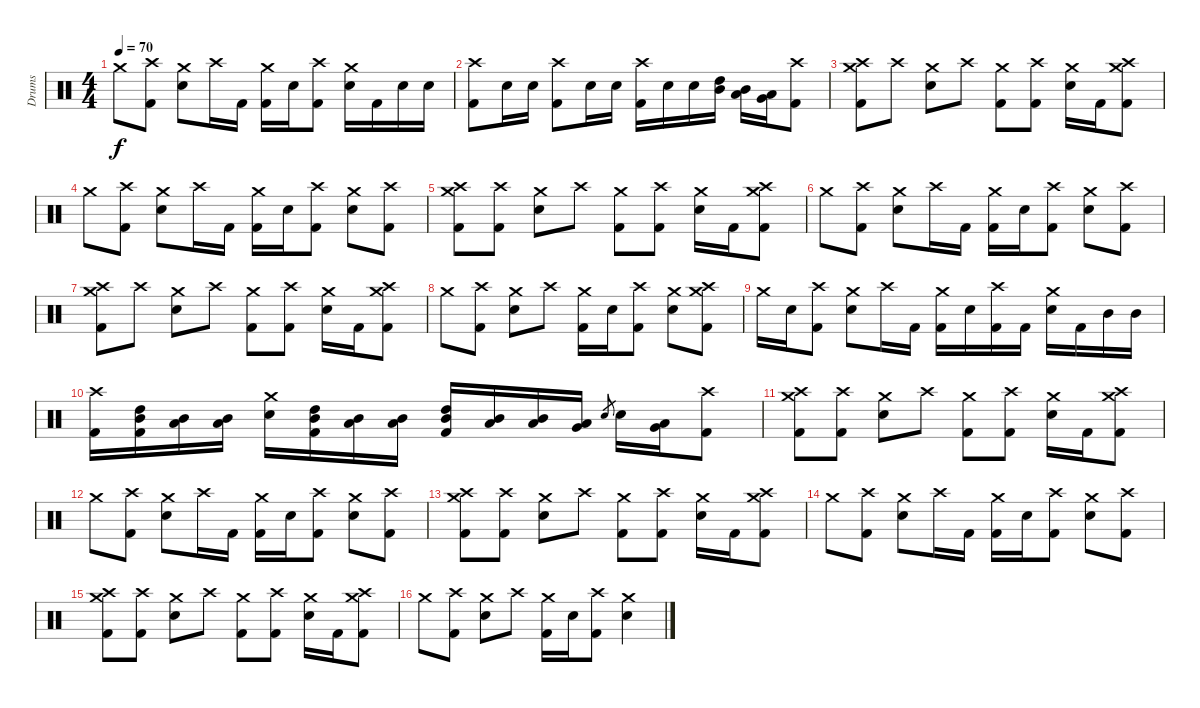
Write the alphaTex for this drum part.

\track ("Drums" "Drums") {instrument percussion}
\staff {score}
\articulation defaults
\ts (4 4)
\tempo 70
\clef neutral
\ks c "Crash medium (hit)".8{dy f}
("Crash high (hit)" "Kick (hit) 2").8 ("Crash medium (hit)" "Snare (hit) 2").8 "Crash high (hit)".16 "Kick (hit) 2".16 ("Crash medium (hit)" "Kick (hit) 2").16 "Snare (hit) 2".16 ("Crash high (hit)" "Kick (hit) 2").8 ("Crash medium (hit)" "Snare (hit) 2").16 "Kick (hit) 2".16 "Snare (hit) 2".16 "Snare (hit) 2".16 |
("Crash high (hit)" "Kick (hit) 2").8 "Snare (hit) 2".16 "Snare (hit) 2".16 ("Crash high (hit)" "Kick (hit) 2").8 "Snare (hit) 2".16 "Snare (hit) 2".16 ("Crash high (hit)" "Kick (hit) 2").16 "Snare (hit) 2".16 "Snare (hit) 2".16 ("High Tom (hit)" "Mid Tom (hit)").16 ("Mid Tom (hit)" "Low Tom (hit)").16 ("Low Tom (hit)" "Very Low Tom (hit)").16 ("Crash high (hit)" "Kick (hit) 2").8 |
("Crash high (hit)" "Crash medium (hit)" "Kick (hit) 2").8 "Crash high (hit)".8 ("Crash medium (hit)" "Snare (hit) 2").8 "Crash high (hit)".8 ("Crash medium (hit)" "Kick (hit) 2").8 ("Crash high (hit)" "Kick (hit) 2").8 ("Crash medium (hit)" "Snare (hit) 2").16 "Kick (hit) 2".16 ("Crash high (hit)" "Crash medium (hit)" "Kick (hit) 2").8 |
"Crash medium (hit)".8 ("Crash high (hit)" "Kick (hit) 2").8 ("Crash medium (hit)" "Snare (hit) 2").8 "Crash high (hit)".16 "Kick (hit) 2".16 ("Crash medium (hit)" "Kick (hit) 2").16 "Snare (hit) 2".16 ("Crash high (hit)" "Kick (hit) 2").8 ("Crash medium (hit)" "Snare (hit) 2").8 ("Crash high (hit)" "Kick (hit) 2").8 |
("Crash high (hit)" "Crash medium (hit)" "Kick (hit) 2").8 ("Crash high (hit)" "Kick (hit) 2").8 ("Crash medium (hit)" "Snare (hit) 2").8 "Crash high (hit)".8 ("Crash medium (hit)" "Kick (hit) 2").8 ("Crash high (hit)" "Kick (hit) 2").8 ("Crash medium (hit)" "Snare (hit) 2").16 "Kick (hit) 2".16 ("Crash high (hit)" "Crash medium (hit)" "Kick (hit) 2").8 |
"Crash medium (hit)".8 ("Crash high (hit)" "Kick (hit) 2").8 ("Crash medium (hit)" "Snare (hit) 2").8 "Crash high (hit)".16 "Kick (hit) 2".16 ("Crash medium (hit)" "Kick (hit) 2").16 "Snare (hit) 2".16 ("Crash high (hit)" "Kick (hit) 2").8 ("Crash medium (hit)" "Snare (hit) 2").8 ("Crash high (hit)" "Kick (hit) 2").8 |
("Crash high (hit)" "Crash medium (hit)" "Kick (hit) 2").8 "Crash high (hit)".8 ("Crash medium (hit)" "Snare (hit) 2").8 "Crash high (hit)".8 ("Crash medium (hit)" "Kick (hit) 2").8 ("Crash high (hit)" "Kick (hit) 2").8 ("Crash medium (hit)" "Snare (hit) 2").16 "Kick (hit) 2".16 ("Crash high (hit)" "Crash medium (hit)" "Kick (hit) 2").8 |
"Crash medium (hit)".8 ("Crash high (hit)" "Kick (hit) 2").8 ("Crash medium (hit)" "Snare (hit) 2").8 "Crash high (hit)".8 ("Crash medium (hit)" "Kick (hit) 2").16 "Snare (hit) 2".16 ("Crash high (hit)" "Kick (hit) 2").8 ("Crash medium (hit)" "Snare (hit) 2").8 ("Crash high (hit)" "Crash medium (hit)" "Kick (hit) 2").8 |
"Crash medium (hit)".16 "Snare (hit) 2".16 ("Crash high (hit)" "Kick (hit) 2").8 ("Crash medium (hit)" "Snare (hit) 2").8 "Crash high (hit)".16 "Kick (hit) 2".16 ("Crash medium (hit)" "Kick (hit) 2").16 "Snare (hit) 2".16 ("Crash high (hit)" "Kick (hit) 2").16 "Kick (hit) 2".16 ("Crash medium (hit)" "Snare (hit) 2").16 "Kick (hit) 2".16 "Mid Tom (hit)".16 "Mid Tom (hit)".16 |
("Crash high (hit)" "Kick (hit) 2").16 ("Mid Tom (hit)" "High Tom (hit)" "Kick (hit) 2").16 ("Low Tom (hit)" "Mid Tom (hit)").16 ("Low Tom (hit)" "Mid Tom (hit)").16 ("Crash medium (hit)" "Snare (hit) 2").16 ("Mid Tom (hit)" "High Tom (hit)" "Kick (hit) 2").16 ("Low Tom (hit)" "Mid Tom (hit)").16 ("Low Tom (hit)" "Mid Tom (hit)").16 ("Mid Tom (hit)" "High Tom (hit)" "Kick (hit) 2").16 ("Low Tom (hit)" "Mid Tom (hit)").16 ("Low Tom (hit)" "Mid Tom (hit)").16 ("Very Low Tom (hit)" "Low Tom (hit)").16 "Snare (hit) 2".8{gr} "Snare (hit) 2".16 ("Very Low Tom (hit)" "Low Tom (hit)").16 ("Crash high (hit)" "Kick (hit) 2").8 |
("Crash high (hit)" "Crash medium (hit)" "Kick (hit) 2").8 ("Crash high (hit)" "Kick (hit) 2").8 ("Crash medium (hit)" "Snare (hit) 2").8 "Crash high (hit)".8 ("Crash medium (hit)" "Kick (hit) 2").8 ("Crash high (hit)" "Kick (hit) 2").8 ("Crash medium (hit)" "Snare (hit) 2").16 "Kick (hit) 2".16 ("Crash high (hit)" "Crash medium (hit)" "Kick (hit) 2").8 |
"Crash medium (hit)".8 ("Crash high (hit)" "Kick (hit) 2").8 ("Crash medium (hit)" "Snare (hit) 2").8 "Crash high (hit)".16 "Kick (hit) 2".16 ("Crash medium (hit)" "Kick (hit) 2").16 "Snare (hit) 2".16 ("Crash high (hit)" "Kick (hit) 2").8 ("Crash medium (hit)" "Snare (hit) 2").8 ("Crash high (hit)" "Kick (hit) 2").8 |
("Crash high (hit)" "Crash medium (hit)" "Kick (hit) 2").8 ("Crash high (hit)" "Kick (hit) 2").8 ("Crash medium (hit)" "Snare (hit) 2").8 "Crash high (hit)".8 ("Crash medium (hit)" "Kick (hit) 2").8 ("Crash high (hit)" "Kick (hit) 2").8 ("Crash medium (hit)" "Snare (hit) 2").16 "Kick (hit) 2".16 ("Crash high (hit)" "Crash medium (hit)" "Kick (hit) 2").8 |
"Crash medium (hit)".8 ("Crash high (hit)" "Kick (hit) 2").8 ("Crash medium (hit)" "Snare (hit) 2").8 "Crash high (hit)".16 "Kick (hit) 2".16 ("Crash medium (hit)" "Kick (hit) 2").16 "Snare (hit) 2".16 ("Crash high (hit)" "Kick (hit) 2").8 ("Crash medium (hit)" "Snare (hit) 2").8 ("Crash high (hit)" "Kick (hit) 2").8 |
("Crash high (hit)" "Crash medium (hit)" "Kick (hit) 2").8 ("Crash high (hit)" "Kick (hit) 2").8 ("Crash medium (hit)" "Snare (hit) 2").8 "Crash high (hit)".8 ("Crash medium (hit)" "Kick (hit) 2").8 ("Crash high (hit)" "Kick (hit) 2").8 ("Crash medium (hit)" "Snare (hit) 2").16 "Kick (hit) 2".16 ("Crash high (hit)" "Crash medium (hit)" "Kick (hit) 2").8 |
"Crash medium (hit)".8 ("Crash high (hit)" "Kick (hit) 2").8 ("Crash medium (hit)" "Snare (hit) 2").8 "Crash high (hit)".8 ("Crash medium (hit)" "Kick (hit) 2").16 "Snare (hit) 2".16 ("Crash high (hit)" "Kick (hit) 2").8 ("Crash medium (hit)" "Snare (hit) 2").4
